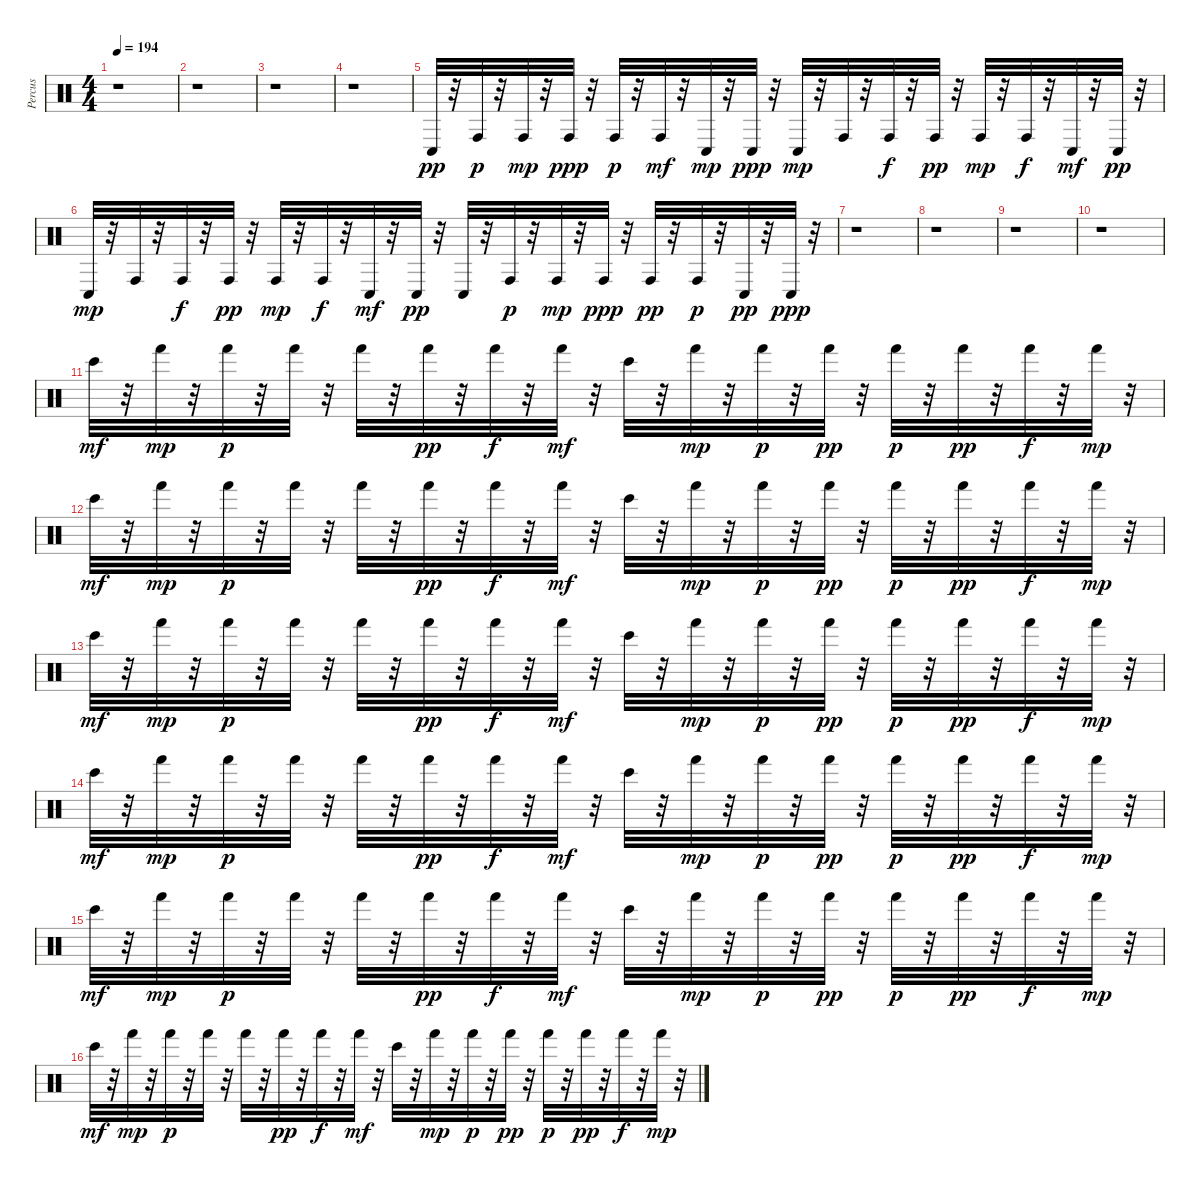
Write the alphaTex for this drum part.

\track ("Percus" "Percus") {instrument percussion}
\staff {score}
\articulation defaults
\ts (4 4)
\tempo 194
\clef neutral
\ks c
r.1{dy ppp} |
r.1 |
r.1 |
r.1 |
"Conga low (hit)".32{dy pp} r.32 "Conga high (hit)".32{dy p} r.32 "Conga high (hit)".32{dy mp} r.32 "Conga high (hit)".32{dy ppp} r.32 "Conga high (hit)".32{dy p} r.32 "Conga high (hit)".32{dy mf} r.32 "Conga low (hit)".32{dy mp} r.32 "Conga low (hit)".32{dy ppp} r.32 "Conga low (hit)".32{dy mp} r.32 "Conga high (hit)".32 r.32 "Conga high (hit)".32{dy f} r.32 "Conga high (hit)".32{dy pp} r.32 "Conga high (hit)".32{dy mp} r.32 "Conga high (hit)".32{dy f} r.32 "Conga low (hit)".32{dy mf} r.32 "Conga low (hit)".32{dy pp} r.32 |
"Conga low (hit)".32{dy mp} r.32 "Conga high (hit)".32 r.32 "Conga high (hit)".32{dy f} r.32 "Conga high (hit)".32{dy pp} r.32 "Conga high (hit)".32{dy mp} r.32 "Conga high (hit)".32{dy f} r.32 "Conga low (hit)".32{dy mf} r.32 "Conga low (hit)".32{dy pp} r.32 "Conga low (hit)".32 r.32 "Conga high (hit)".32{dy p} r.32 "Conga high (hit)".32{dy mp} r.32 "Conga high (hit)".32{dy ppp} r.32 "Conga high (hit)".32{dy pp} r.32 "Conga high (hit)".32{dy p} r.32 "Conga low (hit)".32{dy pp} r.32 "Conga low (hit)".32{dy ppp} r.32 |
r.1 |
r.1 |
r.1 |
r.1 |
"Bongo High (hit)".32{dy mf} r.32 "Hand (hit)".32{dy mp} r.32 "Hand (hit)".32{dy p} r.32 "Hand (hit)".32 r.32 "Hand (hit)".32 r.32 "Hand (hit)".32{dy pp} r.32 "Hand (hit)".32{dy f} r.32 "Hand (hit)".32{dy mf} r.32 "Bongo High (hit)".32 r.32 "Hand (hit)".32{dy mp} r.32 "Hand (hit)".32{dy p} r.32 "Hand (hit)".32{dy pp} r.32 "Hand (hit)".32{dy p} r.32 "Hand (hit)".32{dy pp} r.32 "Hand (hit)".32{dy f} r.32 "Hand (hit)".32{dy mp} r.32 |
"Bongo High (hit)".32{dy mf} r.32 "Hand (hit)".32{dy mp} r.32 "Hand (hit)".32{dy p} r.32 "Hand (hit)".32 r.32 "Hand (hit)".32 r.32 "Hand (hit)".32{dy pp} r.32 "Hand (hit)".32{dy f} r.32 "Hand (hit)".32{dy mf} r.32 "Bongo High (hit)".32 r.32 "Hand (hit)".32{dy mp} r.32 "Hand (hit)".32{dy p} r.32 "Hand (hit)".32{dy pp} r.32 "Hand (hit)".32{dy p} r.32 "Hand (hit)".32{dy pp} r.32 "Hand (hit)".32{dy f} r.32 "Hand (hit)".32{dy mp} r.32 |
"Bongo High (hit)".32{dy mf} r.32 "Hand (hit)".32{dy mp} r.32 "Hand (hit)".32{dy p} r.32 "Hand (hit)".32 r.32 "Hand (hit)".32 r.32 "Hand (hit)".32{dy pp} r.32 "Hand (hit)".32{dy f} r.32 "Hand (hit)".32{dy mf} r.32 "Bongo High (hit)".32 r.32 "Hand (hit)".32{dy mp} r.32 "Hand (hit)".32{dy p} r.32 "Hand (hit)".32{dy pp} r.32 "Hand (hit)".32{dy p} r.32 "Hand (hit)".32{dy pp} r.32 "Hand (hit)".32{dy f} r.32 "Hand (hit)".32{dy mp} r.32 |
"Bongo High (hit)".32{dy mf} r.32 "Hand (hit)".32{dy mp} r.32 "Hand (hit)".32{dy p} r.32 "Hand (hit)".32 r.32 "Hand (hit)".32 r.32 "Hand (hit)".32{dy pp} r.32 "Hand (hit)".32{dy f} r.32 "Hand (hit)".32{dy mf} r.32 "Bongo High (hit)".32 r.32 "Hand (hit)".32{dy mp} r.32 "Hand (hit)".32{dy p} r.32 "Hand (hit)".32{dy pp} r.32 "Hand (hit)".32{dy p} r.32 "Hand (hit)".32{dy pp} r.32 "Hand (hit)".32{dy f} r.32 "Hand (hit)".32{dy mp} r.32 |
"Bongo High (hit)".32{dy mf} r.32 "Hand (hit)".32{dy mp} r.32 "Hand (hit)".32{dy p} r.32 "Hand (hit)".32 r.32 "Hand (hit)".32 r.32 "Hand (hit)".32{dy pp} r.32 "Hand (hit)".32{dy f} r.32 "Hand (hit)".32{dy mf} r.32 "Bongo High (hit)".32 r.32 "Hand (hit)".32{dy mp} r.32 "Hand (hit)".32{dy p} r.32 "Hand (hit)".32{dy pp} r.32 "Hand (hit)".32{dy p} r.32 "Hand (hit)".32{dy pp} r.32 "Hand (hit)".32{dy f} r.32 "Hand (hit)".32{dy mp} r.32 |
"Bongo High (hit)".32{dy mf} r.32 "Hand (hit)".32{dy mp} r.32 "Hand (hit)".32{dy p} r.32 "Hand (hit)".32 r.32 "Hand (hit)".32 r.32 "Hand (hit)".32{dy pp} r.32 "Hand (hit)".32{dy f} r.32 "Hand (hit)".32{dy mf} r.32 "Bongo High (hit)".32 r.32 "Hand (hit)".32{dy mp} r.32 "Hand (hit)".32{dy p} r.32 "Hand (hit)".32{dy pp} r.32 "Hand (hit)".32{dy p} r.32 "Hand (hit)".32{dy pp} r.32 "Hand (hit)".32{dy f} r.32 "Hand (hit)".32{dy mp} r.32
